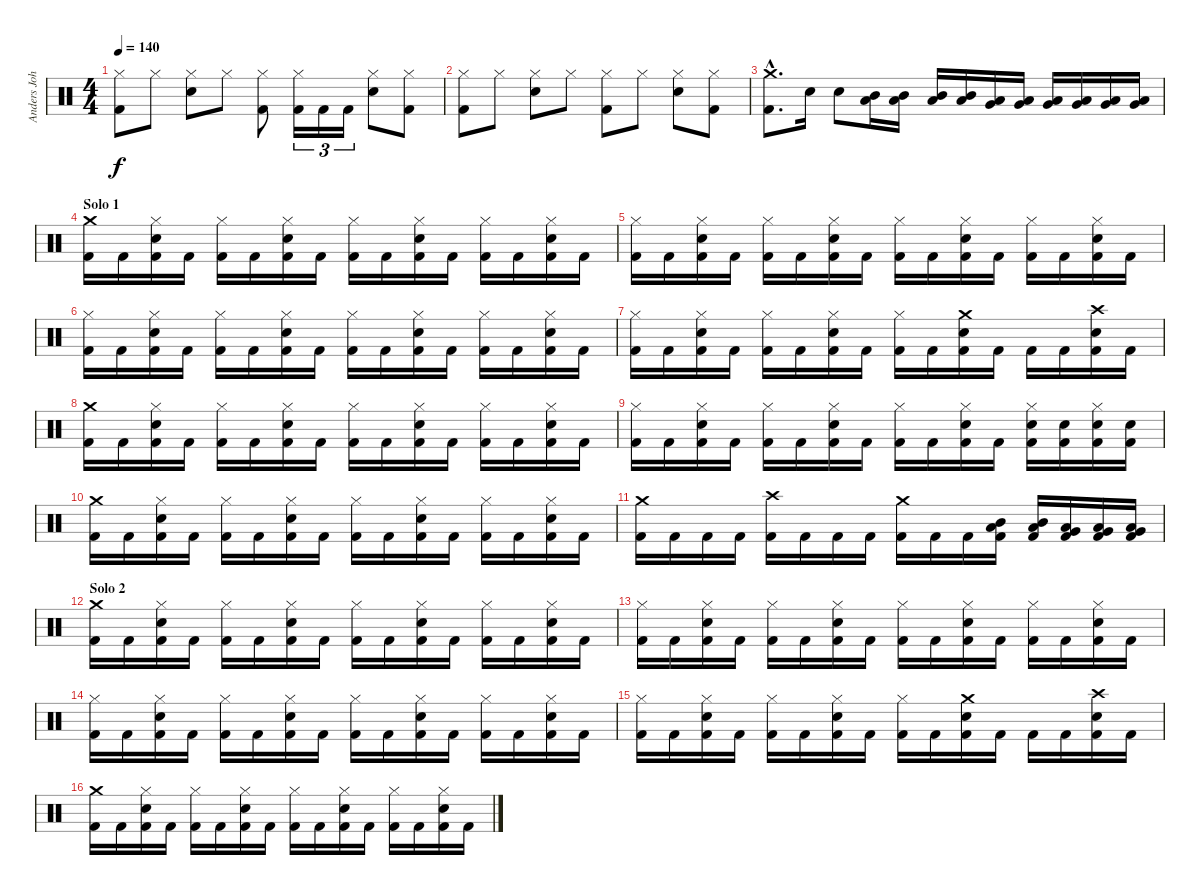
\track ("Anders Johansson :: Drums" "Anders Joh") {instrument percussion}
\staff {score}
\articulation defaults
\ts (4 4)
\tempo 140
\clef neutral
\ks c
("Hi-Hat (closed)" "Kick (hit) 2").8{dy f} "Hi-Hat (closed)".8 ("Hi-Hat (closed)" "Snare (hit) 2").8 "Hi-Hat (closed)".8 ("Hi-Hat (closed)" "Kick (hit) 2").8 ("Hi-Hat (closed)" "Kick (hit) 2").16{tu (3 2)} "Kick (hit) 2".16{tu (3 2)} "Kick (hit) 2".16{tu (3 2)} ("Hi-Hat (closed)" "Snare (hit) 2").8 ("Hi-Hat (closed)" "Kick (hit) 2").8 |
("Hi-Hat (closed)" "Kick (hit) 2").8 "Hi-Hat (closed)".8 ("Hi-Hat (closed)" "Snare (hit) 2").8 "Hi-Hat (closed)".8 ("Hi-Hat (closed)" "Kick (hit) 2").8 "Hi-Hat (closed)".8 ("Hi-Hat (closed)" "Snare (hit) 2").8 ("Hi-Hat (closed)" "Kick (hit) 2").8 |
("Crash medium (hit)"{hac} "Kick (hit) 2"{hac}).8{d} "Snare (hit) 2".16 "Snare (hit) 2".8 ("Mid Tom (hit)" "Low Tom (hit)").16 ("Mid Tom (hit)" "Low Tom (hit)").16 ("Mid Tom (hit)" "Low Tom (hit)").16 ("Mid Tom (hit)" "Low Tom (hit)").16 ("Low Tom (hit)" "Very Low Tom (hit)").16 ("Low Tom (hit)" "Very Low Tom (hit)").16 ("Low Tom (hit)" "Very Low Tom (hit)").16 ("Low Tom (hit)" "Very Low Tom (hit)").16 ("Low Tom (hit)" "Very Low Tom (hit)").16 ("Low Tom (hit)" "Very Low Tom (hit)").16 |
\section ("" "Solo 1")
("Crash medium (hit)" "Kick (hit) 2").16 "Kick (hit) 2".16 ("Hi-Hat (closed)" "Snare (hit) 2" "Kick (hit) 2").16 "Kick (hit) 2".16 ("Hi-Hat (closed)" "Kick (hit) 2").16 "Kick (hit) 2".16 ("Hi-Hat (closed)" "Snare (hit) 2" "Kick (hit) 2").16 "Kick (hit) 2".16 ("Hi-Hat (closed)" "Kick (hit) 2").16 "Kick (hit) 2".16 ("Hi-Hat (closed)" "Snare (hit) 2" "Kick (hit) 2").16 "Kick (hit) 2".16 ("Hi-Hat (closed)" "Kick (hit) 2").16 "Kick (hit) 2".16 ("Hi-Hat (closed)" "Snare (hit) 2" "Kick (hit) 2").16 "Kick (hit) 2".16 |
("Hi-Hat (closed)" "Kick (hit) 2").16 "Kick (hit) 2".16 ("Hi-Hat (closed)" "Snare (hit) 2" "Kick (hit) 2").16 "Kick (hit) 2".16 ("Hi-Hat (closed)" "Kick (hit) 2").16 "Kick (hit) 2".16 ("Hi-Hat (closed)" "Snare (hit) 2" "Kick (hit) 2").16 "Kick (hit) 2".16 ("Hi-Hat (closed)" "Kick (hit) 2").16 "Kick (hit) 2".16 ("Hi-Hat (closed)" "Snare (hit) 2" "Kick (hit) 2").16 "Kick (hit) 2".16 ("Hi-Hat (closed)" "Kick (hit) 2").16 "Kick (hit) 2".16 ("Hi-Hat (closed)" "Snare (hit) 2" "Kick (hit) 2").16 "Kick (hit) 2".16 |
("Hi-Hat (closed)" "Kick (hit) 2").16 "Kick (hit) 2".16 ("Hi-Hat (closed)" "Snare (hit) 2" "Kick (hit) 2").16 "Kick (hit) 2".16 ("Hi-Hat (closed)" "Kick (hit) 2").16 "Kick (hit) 2".16 ("Hi-Hat (closed)" "Snare (hit) 2" "Kick (hit) 2").16 "Kick (hit) 2".16 ("Hi-Hat (closed)" "Kick (hit) 2").16 "Kick (hit) 2".16 ("Hi-Hat (closed)" "Snare (hit) 2" "Kick (hit) 2").16 "Kick (hit) 2".16 ("Hi-Hat (closed)" "Kick (hit) 2").16 "Kick (hit) 2".16 ("Hi-Hat (closed)" "Snare (hit) 2" "Kick (hit) 2").16 "Kick (hit) 2".16 |
("Hi-Hat (closed)" "Kick (hit) 2").16 "Kick (hit) 2".16 ("Hi-Hat (closed)" "Snare (hit) 2" "Kick (hit) 2").16 "Kick (hit) 2".16 ("Hi-Hat (closed)" "Kick (hit) 2").16 "Kick (hit) 2".16 ("Hi-Hat (closed)" "Snare (hit) 2" "Kick (hit) 2").16 "Kick (hit) 2".16 ("Hi-Hat (closed)" "Kick (hit) 2").16 "Kick (hit) 2".16 ("Crash medium (hit)" "Snare (hit) 2" "Kick (hit) 2").16 "Kick (hit) 2".16 "Kick (hit) 2".16 "Kick (hit) 2".16 ("Crash high (hit)" "Snare (hit) 2" "Kick (hit) 2").16 "Kick (hit) 2".16 |
("Crash medium (hit)" "Kick (hit) 2").16 "Kick (hit) 2".16 ("Hi-Hat (closed)" "Snare (hit) 2" "Kick (hit) 2").16 "Kick (hit) 2".16 ("Hi-Hat (closed)" "Kick (hit) 2").16 "Kick (hit) 2".16 ("Hi-Hat (closed)" "Snare (hit) 2" "Kick (hit) 2").16 "Kick (hit) 2".16 ("Hi-Hat (closed)" "Kick (hit) 2").16 "Kick (hit) 2".16 ("Hi-Hat (closed)" "Snare (hit) 2" "Kick (hit) 2").16 "Kick (hit) 2".16 ("Hi-Hat (closed)" "Kick (hit) 2").16 "Kick (hit) 2".16 ("Hi-Hat (closed)" "Snare (hit) 2" "Kick (hit) 2").16 "Kick (hit) 2".16 |
("Hi-Hat (closed)" "Kick (hit) 2").16 "Kick (hit) 2".16 ("Hi-Hat (closed)" "Snare (hit) 2" "Kick (hit) 2").16 "Kick (hit) 2".16 ("Hi-Hat (closed)" "Kick (hit) 2").16 "Kick (hit) 2".16 ("Hi-Hat (closed)" "Snare (hit) 2" "Kick (hit) 2").16 "Kick (hit) 2".16 ("Hi-Hat (closed)" "Kick (hit) 2").16 "Kick (hit) 2".16 ("Hi-Hat (closed)" "Snare (hit) 2" "Kick (hit) 2").16 "Kick (hit) 2".16 ("Hi-Hat (closed)" "Snare (hit) 2" "Kick (hit) 2").16 ("Snare (hit) 2" "Kick (hit) 2").16 ("Hi-Hat (closed)" "Snare (hit) 2" "Kick (hit) 2").16 ("Snare (hit) 2" "Kick (hit) 2").16 |
("Crash medium (hit)" "Kick (hit) 2").16 "Kick (hit) 2".16 ("Hi-Hat (closed)" "Snare (hit) 2" "Kick (hit) 2").16 "Kick (hit) 2".16 ("Hi-Hat (closed)" "Kick (hit) 2").16 "Kick (hit) 2".16 ("Hi-Hat (closed)" "Snare (hit) 2" "Kick (hit) 2").16 "Kick (hit) 2".16 ("Hi-Hat (closed)" "Kick (hit) 2").16 "Kick (hit) 2".16 ("Hi-Hat (closed)" "Snare (hit) 2" "Kick (hit) 2").16 "Kick (hit) 2".16 ("Hi-Hat (closed)" "Kick (hit) 2").16 "Kick (hit) 2".16 ("Hi-Hat (closed)" "Snare (hit) 2" "Kick (hit) 2").16 "Kick (hit) 2".16 |
("Crash medium (hit)" "Kick (hit) 2").16 "Kick (hit) 2".16 "Kick (hit) 2".16 "Kick (hit) 2".16 ("Crash high (hit)" "Kick (hit) 2").16 "Kick (hit) 2".16 "Kick (hit) 2".16 "Kick (hit) 2".16 ("Crash medium (hit)" "Kick (hit) 2").16 "Kick (hit) 2".16 "Kick (hit) 2".16 ("Mid Tom (hit)" "Low Tom (hit)" "Kick (hit) 2").16 ("Mid Tom (hit)" "Low Tom (hit)" "Kick (hit) 2").16 ("Low Tom (hit)" "Very Low Tom (hit)" "Kick (hit) 2").16 ("Low Tom (hit)" "Very Low Tom (hit)" "Kick (hit) 2").16 ("Low Tom (hit)" "Very Low Tom (hit)" "Kick (hit) 2").16 |
\section ("" "Solo 2")
("Crash medium (hit)" "Kick (hit) 2").16 "Kick (hit) 2".16 ("Hi-Hat (closed)" "Snare (hit) 2" "Kick (hit) 2").16 "Kick (hit) 2".16 ("Hi-Hat (closed)" "Kick (hit) 2").16 "Kick (hit) 2".16 ("Hi-Hat (closed)" "Snare (hit) 2" "Kick (hit) 2").16 "Kick (hit) 2".16 ("Hi-Hat (closed)" "Kick (hit) 2").16 "Kick (hit) 2".16 ("Hi-Hat (closed)" "Snare (hit) 2" "Kick (hit) 2").16 "Kick (hit) 2".16 ("Hi-Hat (closed)" "Kick (hit) 2").16 "Kick (hit) 2".16 ("Hi-Hat (closed)" "Snare (hit) 2" "Kick (hit) 2").16 "Kick (hit) 2".16 |
("Hi-Hat (closed)" "Kick (hit) 2").16 "Kick (hit) 2".16 ("Hi-Hat (closed)" "Snare (hit) 2" "Kick (hit) 2").16 "Kick (hit) 2".16 ("Hi-Hat (closed)" "Kick (hit) 2").16 "Kick (hit) 2".16 ("Hi-Hat (closed)" "Snare (hit) 2" "Kick (hit) 2").16 "Kick (hit) 2".16 ("Hi-Hat (closed)" "Kick (hit) 2").16 "Kick (hit) 2".16 ("Hi-Hat (closed)" "Snare (hit) 2" "Kick (hit) 2").16 "Kick (hit) 2".16 ("Hi-Hat (closed)" "Kick (hit) 2").16 "Kick (hit) 2".16 ("Hi-Hat (closed)" "Snare (hit) 2" "Kick (hit) 2").16 "Kick (hit) 2".16 |
("Hi-Hat (closed)" "Kick (hit) 2").16 "Kick (hit) 2".16 ("Hi-Hat (closed)" "Snare (hit) 2" "Kick (hit) 2").16 "Kick (hit) 2".16 ("Hi-Hat (closed)" "Kick (hit) 2").16 "Kick (hit) 2".16 ("Hi-Hat (closed)" "Snare (hit) 2" "Kick (hit) 2").16 "Kick (hit) 2".16 ("Hi-Hat (closed)" "Kick (hit) 2").16 "Kick (hit) 2".16 ("Hi-Hat (closed)" "Snare (hit) 2" "Kick (hit) 2").16 "Kick (hit) 2".16 ("Hi-Hat (closed)" "Kick (hit) 2").16 "Kick (hit) 2".16 ("Hi-Hat (closed)" "Snare (hit) 2" "Kick (hit) 2").16 "Kick (hit) 2".16 |
("Hi-Hat (closed)" "Kick (hit) 2").16 "Kick (hit) 2".16 ("Hi-Hat (closed)" "Snare (hit) 2" "Kick (hit) 2").16 "Kick (hit) 2".16 ("Hi-Hat (closed)" "Kick (hit) 2").16 "Kick (hit) 2".16 ("Hi-Hat (closed)" "Snare (hit) 2" "Kick (hit) 2").16 "Kick (hit) 2".16 ("Hi-Hat (closed)" "Kick (hit) 2").16 "Kick (hit) 2".16 ("Crash medium (hit)" "Snare (hit) 2" "Kick (hit) 2").16 "Kick (hit) 2".16 "Kick (hit) 2".16 "Kick (hit) 2".16 ("Crash high (hit)" "Snare (hit) 2" "Kick (hit) 2").16 "Kick (hit) 2".16 |
("Crash medium (hit)" "Kick (hit) 2").16 "Kick (hit) 2".16 ("Hi-Hat (closed)" "Snare (hit) 2" "Kick (hit) 2").16 "Kick (hit) 2".16 ("Hi-Hat (closed)" "Kick (hit) 2").16 "Kick (hit) 2".16 ("Hi-Hat (closed)" "Snare (hit) 2" "Kick (hit) 2").16 "Kick (hit) 2".16 ("Hi-Hat (closed)" "Kick (hit) 2").16 "Kick (hit) 2".16 ("Hi-Hat (closed)" "Snare (hit) 2" "Kick (hit) 2").16 "Kick (hit) 2".16 ("Hi-Hat (closed)" "Kick (hit) 2").16 "Kick (hit) 2".16 ("Hi-Hat (closed)" "Snare (hit) 2" "Kick (hit) 2").16 "Kick (hit) 2".16
